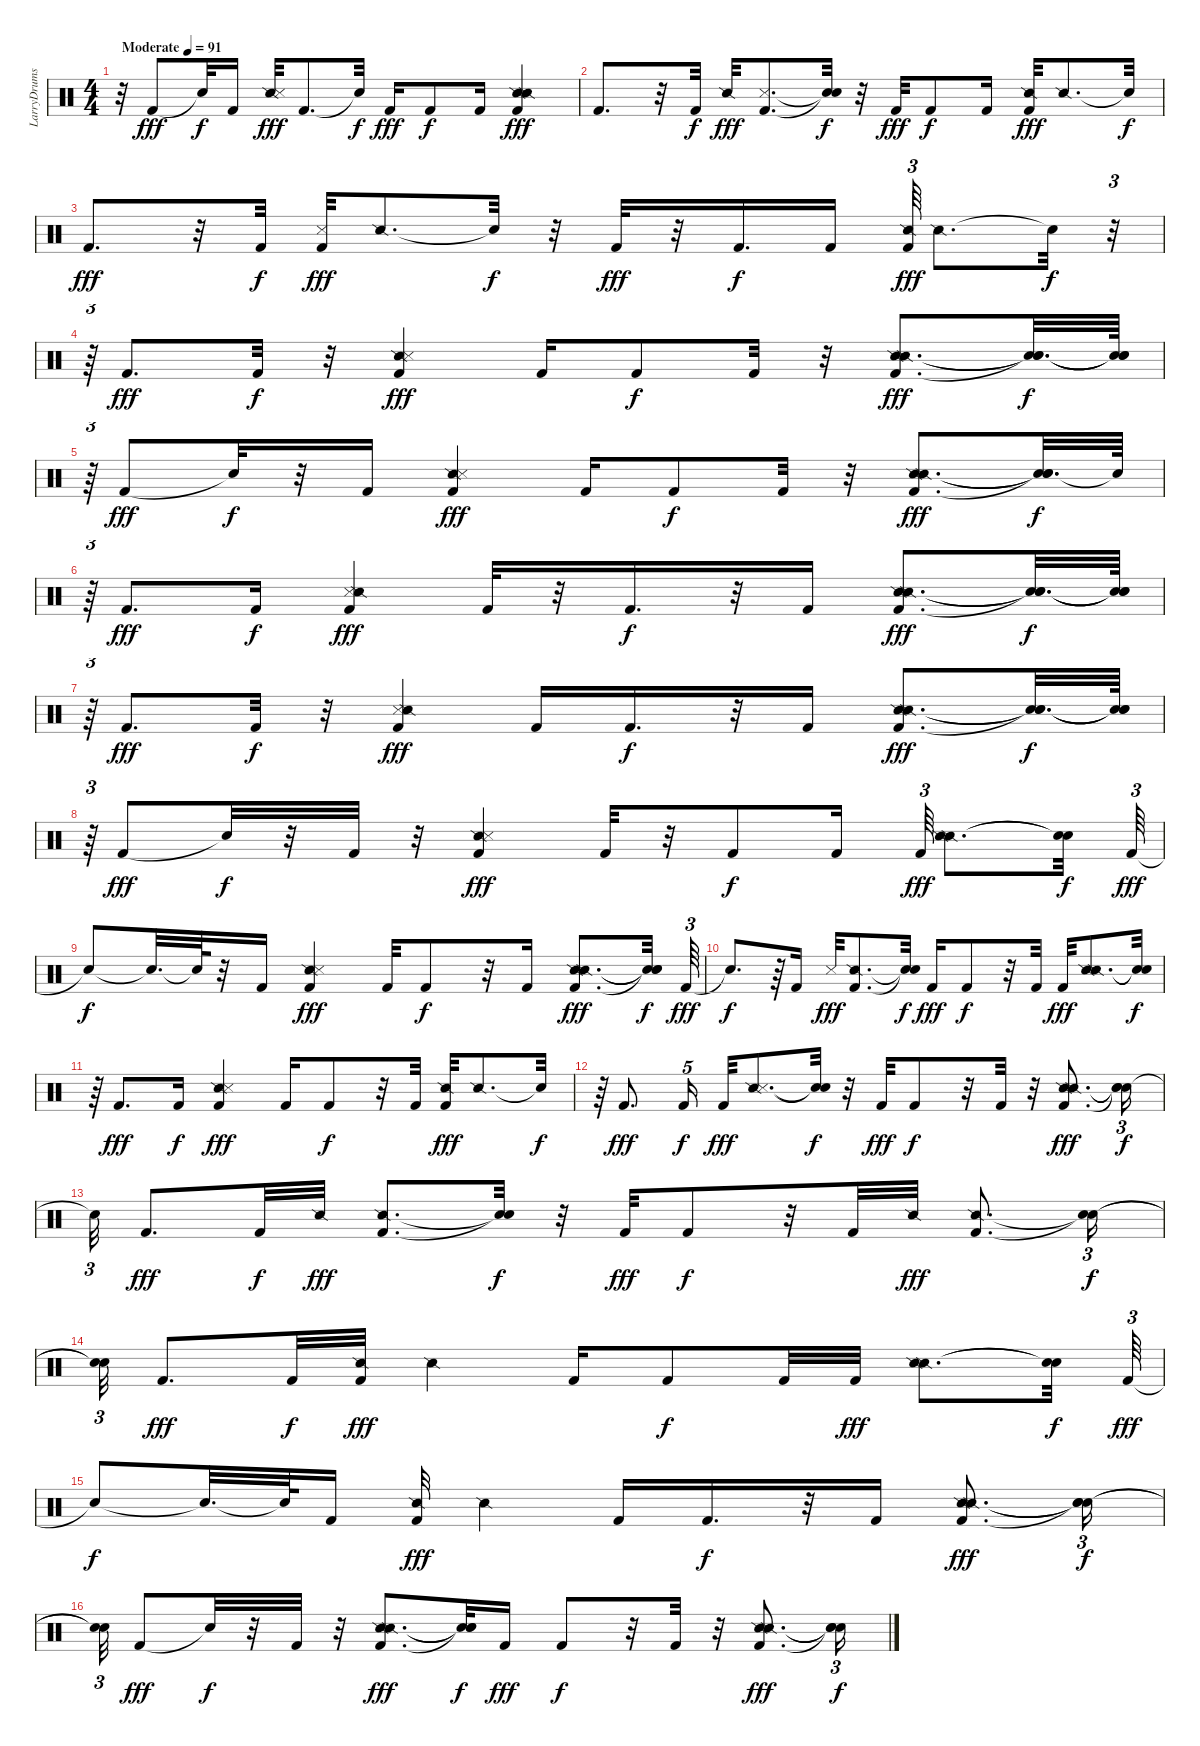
\track ("LarryDrums" "LarryDrums") {instrument percussion}
\staff {score}
\articulation defaults
\ts (4 4)
\tempo (91 "Moderate")
\clef neutral
\ks c
r.32{dy fff} "Kick (hit) 2".8 "Snare (hit)"{t}.32{dy f} "Kick (hit) 2".16 ("Snare (side stick) 2" "Snare (side stick) 3").32{dy fff} "Kick (hit) 2".8{d} "Snare (hit)"{t}.32{dy f} "Kick (hit) 2".16{dy fff} "Kick (hit) 2".8{dy f} "Kick (hit) 2".16 ("Kick (hit) 2" "Snare (side stick) 2" "Snare (side stick) 2").4{dy fff} |
"Kick (hit) 2".8{d} r.32 "Kick (hit) 2".32{dy f} "Snare (side stick) 2".32{dy fff} ("Kick (hit) 2" "Snare (side stick) 3").8{d} ("Snare (hit)"{t} "Snare (hit)"{t}).32{dy f} r.32 "Kick (hit) 2".32{dy fff} "Kick (hit) 2".8{dy f} "Kick (hit) 2".16 ("Kick (hit) 2" "Snare (side stick) 2").32{dy fff} "Snare (side stick) 2".8{d} "Snare (hit)"{t}.32{dy f} |
"Kick (hit) 2".8{d dy fff} r.32 "Kick (hit) 2".32{dy f} ("Snare (side stick) 3" "Kick (hit) 2").32{dy fff} "Snare (side stick) 2".8{d} "Snare (hit)"{t}.32{dy f} r.32 "Kick (hit) 2".32{dy fff} r.32 "Kick (hit) 2".16{d dy f} "Kick (hit) 2".16 ("Kick (hit) 2" "Snare (side stick) 2").64{tu (3 2) dy fff} "Snare (side stick) 2".8{d} "Snare (hit)"{t}.32{dy f} r.32{tu (3 2)} |
r.64{tu (3 2)} "Kick (hit) 2".8{d dy fff} "Kick (hit) 2".32{dy f} r.32 ("Snare (side stick) 2" "Snare (side stick) 3" "Kick (hit) 2").4{dy fff} "Kick (hit) 2".16 "Kick (hit) 2".8{dy f} "Kick (hit) 2".32 r.32 ("Kick (hit) 2" "Snare (side stick) 2" "Snare (side stick) 2").8{d dy fff} ("Snare (hit)"{t} "Snare (hit)"{t} "Snare (hit)"{t}).32{d dy f} ("Snare (hit)"{t} "Snare (hit)"{t} "Snare (hit)"{t}).64 |
r.64{tu (3 2)} "Kick (hit) 2".8{dy fff} "Snare (hit)"{t}.32{dy f} r.32 "Kick (hit) 2".16 ("Snare (side stick) 2" "Snare (side stick) 3" "Kick (hit) 2").4{dy fff} "Kick (hit) 2".16 "Kick (hit) 2".8{dy f} "Kick (hit) 2".32 r.32 ("Snare (side stick) 2" "Snare (side stick) 2" "Kick (hit) 2").8{d dy fff} ("Snare (hit)"{t} "Snare (hit)"{t} "Snare (hit)"{t}).32{d dy f} "Snare (hit)"{t}.64 |
r.64{tu (3 2)} "Kick (hit) 2".8{d dy fff} "Kick (hit) 2".16{dy f} ("Snare (side stick) 3" "Kick (hit) 2" "Snare (side stick) 2").4{dy fff} "Kick (hit) 2".32 r.32 "Kick (hit) 2".16{d dy f} r.32 "Kick (hit) 2".16 ("Snare (side stick) 2" "Snare (side stick) 2" "Kick (hit) 2").8{d dy fff} ("Snare (hit)"{t} "Snare (hit)"{t} "Snare (hit)"{t}).32{d dy f} ("Snare (hit)"{t} "Snare (hit)"{t} "Snare (hit)"{t}).64 |
r.64{tu (3 2)} "Kick (hit) 2".8{d dy fff} "Kick (hit) 2".32{dy f} r.32 ("Snare (side stick) 3" "Snare (side stick) 2" "Kick (hit) 2").4{dy fff} "Kick (hit) 2".16 "Kick (hit) 2".16{d dy f} r.32 "Kick (hit) 2".16 ("Snare (side stick) 2" "Snare (side stick) 2" "Kick (hit) 2").8{d dy fff} ("Snare (hit)"{t} "Snare (hit)"{t} "Snare (hit)"{t}).32{d dy f} ("Snare (hit)"{t} "Snare (hit)"{t} "Snare (hit)"{t}).64 |
r.64{tu (3 2)} "Kick (hit) 2".8{dy fff} "Snare (hit)"{t}.32{dy f} r.32 "Kick (hit) 2".32 r.32 ("Kick (hit) 2" "Snare (side stick) 2" "Snare (side stick) 3").4{dy fff} "Kick (hit) 2".32 r.32 "Kick (hit) 2".8{dy f} "Kick (hit) 2".16 "Kick (hit) 2".64{tu (3 2) dy fff} ("Snare (side stick) 2" "Snare (side stick) 2").8{d} ("Snare (hit)"{t} "Snare (hit)"{t}).32{dy f} "Kick (hit) 2".64{tu (3 2) dy fff} |
"Snare (hit)"{t}.8{dy f} "Snare (hit)"{t}.32{d} "Snare (hit)"{t}.64 r.32 "Kick (hit) 2".16 ("Kick (hit) 2" "Snare (side stick) 2" "Snare (side stick) 3").4{dy fff} "Kick (hit) 2".32 "Kick (hit) 2".8{dy f} r.32 "Kick (hit) 2".16 ("Kick (hit) 2" "Snare (side stick) 2" "Snare (side stick) 2").8{d dy fff} ("Snare (hit)"{t} "Snare (hit)"{t} "Snare (hit)"{t}).32{dy f} "Kick (hit) 2".64{tu (3 2) dy fff} |
"Snare (hit)"{t}.8{d dy f} r.64 "Kick (hit) 2".16 "Snare (side stick) 3".32{dy fff} ("Snare (side stick) 2" "Kick (hit) 2").8{d} ("Snare (hit)"{t} "Snare (hit)"{t}).32{dy f} "Kick (hit) 2".16{dy fff} "Kick (hit) 2".8{dy f} r.32 "Kick (hit) 2".32 "Kick (hit) 2".32{dy fff} ("Snare (side stick) 2" "Snare (side stick) 2").8{d} ("Snare (hit)"{t} "Snare (hit)"{t}).32{dy f} |
r.64 "Kick (hit) 2".8{d dy fff} "Kick (hit) 2".16{dy f} ("Kick (hit) 2" "Snare (side stick) 2" "Snare (side stick) 3").4{dy fff} "Kick (hit) 2".16 "Kick (hit) 2".8{dy f} r.32 "Kick (hit) 2".32 ("Kick (hit) 2" "Snare (side stick) 2").32{dy fff} "Snare (side stick) 2".8{d} "Snare (hit)"{t}.32{dy f} |
r.64 "Kick (hit) 2".8{d dy fff} "Kick (hit) 2".16{tu (5 4) dy f} "Kick (hit) 2".32{dy fff} ("Snare (side stick) 2" "Snare (side stick) 3").8{d} ("Snare (hit)"{t} "Snare (hit)"{t}).32{dy f} r.32 "Kick (hit) 2".32{dy fff} "Kick (hit) 2".8{dy f} r.32 "Kick (hit) 2".32 r.32 ("Kick (hit) 2" "Snare (side stick) 2" "Snare (side stick) 2").8{d dy fff} ("Snare (hit)"{t} "Snare (hit)"{t} "Snare (hit)"{t}).16{tu (3 2) dy f} |
"Snare (hit)"{t}.32{tu (3 2)} "Kick (hit) 2".8{d dy fff} "Kick (hit) 2".32{dy f} "Snare (side stick) 2".32{dy fff} ("Snare (side stick) 2" "Kick (hit) 2").8{d} ("Snare (hit)"{t} "Snare (hit)"{t}).32{dy f} r.32 "Kick (hit) 2".32{dy fff} "Kick (hit) 2".8{dy f} r.32 "Kick (hit) 2".32 "Snare (side stick) 2".32{dy fff} ("Kick (hit) 2" "Snare (side stick) 2").8{d} ("Snare (hit)"{t} "Snare (hit)"{t}).16{tu (3 2) dy f} |
("Snare (hit)"{t} "Snare (hit)"{t}).32{tu (3 2)} "Kick (hit) 2".8{d dy fff} "Kick (hit) 2".32{dy f} ("Kick (hit) 2" "Snare (side stick) 2").32{dy fff} "Snare (side stick) 2".4 "Kick (hit) 2".16 "Kick (hit) 2".8{dy f} "Kick (hit) 2".32 "Kick (hit) 2".32{dy fff} ("Snare (side stick) 2" "Snare (side stick) 2").8{d} ("Snare (hit)"{t} "Snare (hit)"{t}).32{dy f} "Kick (hit) 2".64{tu (3 2) dy fff} |
"Snare (hit)"{t}.8{dy f} "Snare (hit)"{t}.32{d} "Snare (hit)"{t}.64 "Kick (hit) 2".16 ("Kick (hit) 2" "Snare (side stick) 2").32{dy fff} "Snare (side stick) 2".4 "Kick (hit) 2".16 "Kick (hit) 2".16{d dy f} r.32 "Kick (hit) 2".16 ("Kick (hit) 2" "Snare (side stick) 2" "Snare (side stick) 2").8{d dy fff} ("Snare (hit)"{t} "Snare (hit)"{t} "Snare (hit)"{t}).16{tu (3 2) dy f} |
("Snare (hit)"{t} "Snare (hit)"{t}).32{tu (3 2)} "Kick (hit) 2".8{dy fff} "Snare (hit)"{t}.32{dy f} r.32 "Kick (hit) 2".32 r.32 ("Snare (side stick) 2" "Kick (hit) 2" "Snare (side stick) 2").8{d dy fff} ("Snare (hit)"{t} "Snare (hit)"{t} "Snare (hit)"{t}).32{dy f} "Kick (hit) 2".16{dy fff} "Kick (hit) 2".8{dy f} r.32 "Kick (hit) 2".32 r.32 ("Snare (side stick) 2" "Kick (hit) 2" "Snare (side stick) 2").8{d dy fff} ("Snare (hit)"{t} "Snare (hit)"{t} "Snare (hit)"{t}).16{tu (3 2) dy f}
